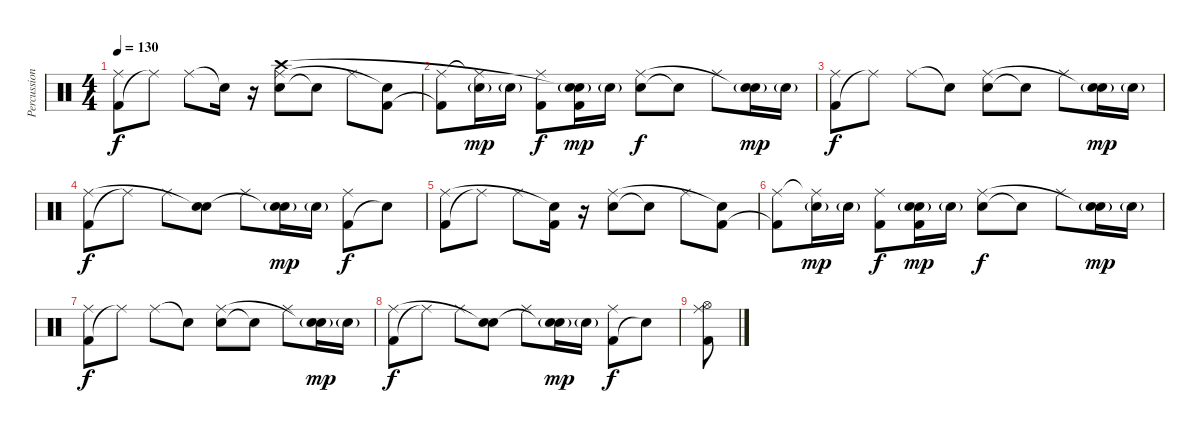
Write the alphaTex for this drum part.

\track ("Percussion" "Percussion") {instrument percussion}
\staff {score}
\articulation defaults
\ts (4 4)
\tempo 130
\clef neutral
\ks c
("Kick (hit) 2" "Ride (middle)").8{dy f} "Ride (middle)"{t}.8 "Ride (middle)".8 "Snare (hit)"{t}.16 r.16 ("Electric Snare (hit)" "Ride (middle)" "Crash high (hit)").8 "Snare (hit)"{t}.8 "Ride (middle)".8 ("Kick (hit) 2" "Snare (hit)"{t}).8 |
("Kick (hit) 2"{t} "Ride (middle)").8 ("Electric Snare (hit)"{g} "Ride (middle)"{t}).16{dy mp} "Electric Snare (hit)"{g}.16 ("Kick (hit) 2" "Ride (middle)").8{dy f} ("Kick (hit) 2" "Electric Snare (hit)"{g} "Snare (hit)"{t}).16{dy mp} "Electric Snare (hit)"{g}.16 ("Electric Snare (hit)" "Ride (middle)").8{dy f} "Snare (hit)"{t}.8 "Ride (middle)".8 ("Electric Snare (hit)"{g} "Snare (hit)"{t}).16{dy mp} "Electric Snare (hit)"{g}.16 |
("Kick (hit) 2" "Ride (middle)").8{dy f} "Ride (middle)"{t}.8 "Ride (middle)".8 "Snare (hit)"{t}.8 ("Electric Snare (hit)" "Ride (middle)").8 "Snare (hit)"{t}.8 "Ride (middle)".8 ("Electric Snare (hit)"{g} "Snare (hit)"{t}).16{dy mp} "Electric Snare (hit)"{g}.16 |
("Kick (hit) 2" "Ride (middle)").8{dy f} "Ride (middle)"{t}.8 "Ride (middle)".8 ("Electric Snare (hit)" "Snare (hit)"{t}).8 "Ride (middle)".8 ("Electric Snare (hit)"{g} "Snare (hit)"{t}).16{dy mp} "Electric Snare (hit)"{g}.16 ("Kick (hit) 2" "Ride (middle)").8{dy f} "Snare (hit)"{t}.8 |
("Kick (hit) 2" "Ride (middle)").8 "Ride (middle)"{t}.8 "Ride (middle)".8 ("Kick (hit) 2" "Snare (hit)"{t}).16 r.16 ("Electric Snare (hit)" "Ride (middle)").8 "Snare (hit)"{t}.8 "Ride (middle)".8 ("Kick (hit) 2" "Snare (hit)"{t}).8 |
("Kick (hit) 2"{t} "Ride (middle)").8 ("Electric Snare (hit)"{g} "Ride (middle)"{t}).16{dy mp} "Electric Snare (hit)"{g}.16 ("Kick (hit) 2" "Ride (middle)").8{dy f} ("Kick (hit) 2" "Electric Snare (hit)"{g} "Snare (hit)").16{dy mp} "Electric Snare (hit)"{g}.16 ("Electric Snare (hit)" "Ride (middle)").8{dy f} "Snare (hit)"{t}.8 "Ride (middle)".8 ("Electric Snare (hit)"{g} "Snare (hit)"{t}).16{dy mp} "Electric Snare (hit)"{g}.16 |
("Kick (hit) 2" "Ride (middle)").8{dy f} "Ride (middle)"{t}.8 "Ride (middle)".8 "Snare (hit)"{t}.8 ("Electric Snare (hit)" "Ride (middle)").8 "Snare (hit)"{t}.8 "Ride (middle)".8 ("Electric Snare (hit)"{g} "Snare (hit)"{t}).16{dy mp} "Electric Snare (hit)"{g}.16 |
("Kick (hit) 2" "Ride (middle)").8{dy f} "Ride (middle)"{t}.8 "Ride (middle)".8 ("Electric Snare (hit)" "Snare (hit)"{t}).8 "Ride (middle)".8 ("Electric Snare (hit)"{g} "Snare (hit)"{t}).16{dy mp} "Electric Snare (hit)"{g}.16 ("Kick (hit) 2" "Ride (middle)").8{dy f} "Snare (hit)"{t}.8 |
("Kick (hit) 2" "Hi-Hat (open)" "Ride (middle)").8
